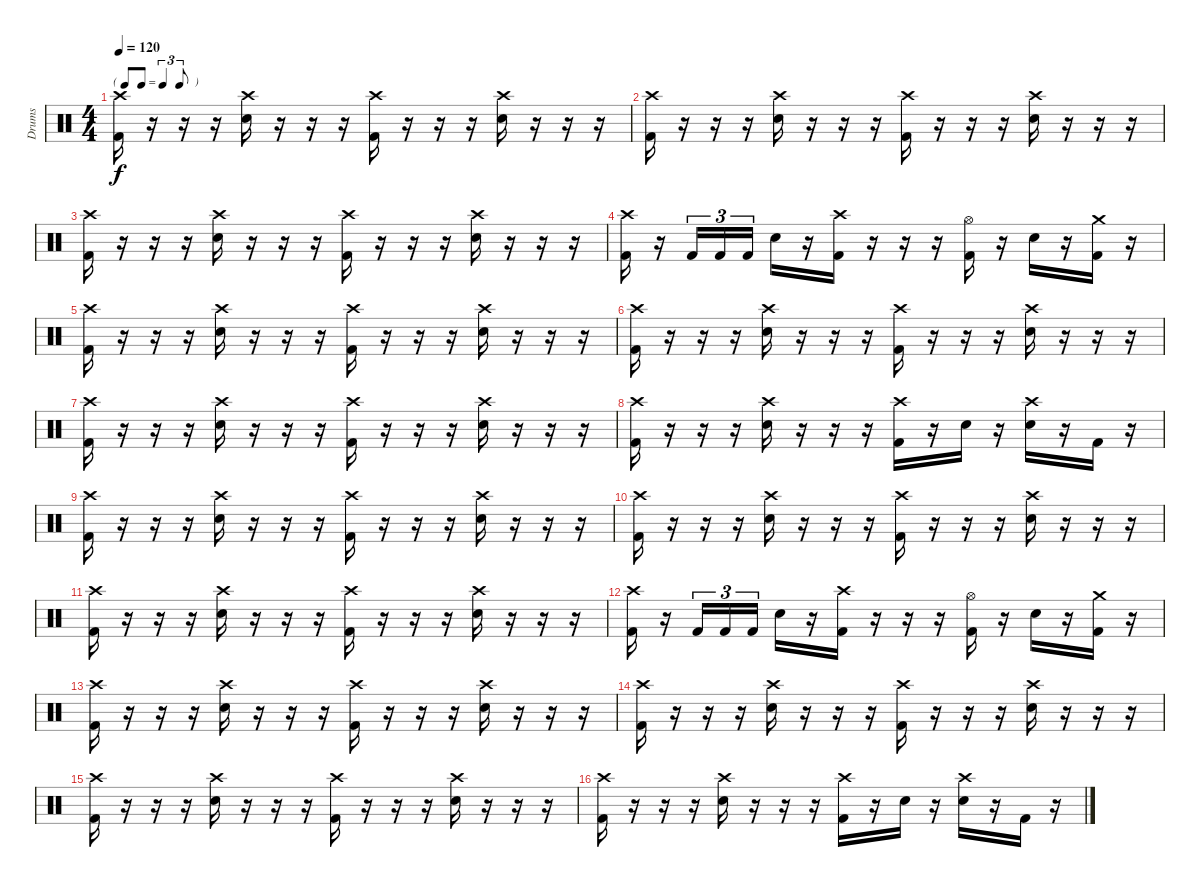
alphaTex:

\track ("Drums" "Drums") {instrument percussion}
\staff {score}
\articulation defaults
\ts (4 4)
\tf triplet8th
\tempo 120
\clef neutral
\ks c
("Crash high (hit)" "Kick (hit) 2").16{dy f} r.16 r.16 r.16 ("Crash high (hit)" "Electric Snare (hit)").16 r.16 r.16 r.16 ("Crash high (hit)" "Kick (hit) 2").16 r.16 r.16 r.16 ("Crash high (hit)" "Electric Snare (hit)").16 r.16 r.16 r.16 |
("Crash high (hit)" "Kick (hit) 2").16 r.16 r.16 r.16 ("Crash high (hit)" "Electric Snare (hit)").16 r.16 r.16 r.16 ("Crash high (hit)" "Kick (hit) 2").16 r.16 r.16 r.16 ("Crash high (hit)" "Electric Snare (hit)").16 r.16 r.16 r.16 |
("Crash high (hit)" "Kick (hit) 2").16 r.16 r.16 r.16 ("Crash high (hit)" "Electric Snare (hit)").16 r.16 r.16 r.16 ("Crash high (hit)" "Kick (hit) 2").16 r.16 r.16 r.16 ("Crash high (hit)" "Electric Snare (hit)").16 r.16 r.16 r.16 |
("Crash high (hit)" "Kick (hit) 2").16 r.16 "Kick (hit) 2".16{tu (3 2)} "Kick (hit) 2".16{tu (3 2)} "Kick (hit) 2".16{tu (3 2)} "Electric Snare (hit)".16 r.16 ("Crash high (hit)" "Kick (hit) 2").16 r.16 r.16 r.16 ("Hi-Hat (open)" "Kick (hit) 2").16 r.16 "Electric Snare (hit)".16 r.16 ("Crash medium (hit)" "Kick (hit) 2").16 r.16 |
("Crash high (hit)" "Kick (hit) 2").16 r.16 r.16 r.16 ("Crash high (hit)" "Electric Snare (hit)").16 r.16 r.16 r.16 ("Crash high (hit)" "Kick (hit) 2").16 r.16 r.16 r.16 ("Crash high (hit)" "Electric Snare (hit)").16 r.16 r.16 r.16 |
("Crash high (hit)" "Kick (hit) 2").16 r.16 r.16 r.16 ("Crash high (hit)" "Electric Snare (hit)").16 r.16 r.16 r.16 ("Crash high (hit)" "Kick (hit) 2").16 r.16 r.16 r.16 ("Crash high (hit)" "Electric Snare (hit)").16 r.16 r.16 r.16 |
("Crash high (hit)" "Kick (hit) 2").16 r.16 r.16 r.16 ("Crash high (hit)" "Electric Snare (hit)").16 r.16 r.16 r.16 ("Crash high (hit)" "Kick (hit) 2").16 r.16 r.16 r.16 ("Crash high (hit)" "Electric Snare (hit)").16 r.16 r.16 r.16 |
("Crash high (hit)" "Kick (hit) 2").16 r.16 r.16 r.16 ("Crash high (hit)" "Electric Snare (hit)").16 r.16 r.16 r.16 ("Crash high (hit)" "Kick (hit) 2").16 r.16 "Electric Snare (hit)".16 r.16 ("Crash high (hit)" "Electric Snare (hit)").16 r.16 "Kick (hit) 2".16 r.16 |
("Crash high (hit)" "Kick (hit) 2").16 r.16 r.16 r.16 ("Crash high (hit)" "Electric Snare (hit)").16 r.16 r.16 r.16 ("Crash high (hit)" "Kick (hit) 2").16 r.16 r.16 r.16 ("Crash high (hit)" "Electric Snare (hit)").16 r.16 r.16 r.16 |
("Crash high (hit)" "Kick (hit) 2").16 r.16 r.16 r.16 ("Crash high (hit)" "Electric Snare (hit)").16 r.16 r.16 r.16 ("Crash high (hit)" "Kick (hit) 2").16 r.16 r.16 r.16 ("Crash high (hit)" "Electric Snare (hit)").16 r.16 r.16 r.16 |
("Crash high (hit)" "Kick (hit) 2").16 r.16 r.16 r.16 ("Crash high (hit)" "Electric Snare (hit)").16 r.16 r.16 r.16 ("Crash high (hit)" "Kick (hit) 2").16 r.16 r.16 r.16 ("Crash high (hit)" "Electric Snare (hit)").16 r.16 r.16 r.16 |
("Crash high (hit)" "Kick (hit) 2").16 r.16 "Kick (hit) 2".16{tu (3 2)} "Kick (hit) 2".16{tu (3 2)} "Kick (hit) 2".16{tu (3 2)} "Electric Snare (hit)".16 r.16 ("Crash high (hit)" "Kick (hit) 2").16 r.16 r.16 r.16 ("Hi-Hat (open)" "Kick (hit) 2").16 r.16 "Electric Snare (hit)".16 r.16 ("Crash medium (hit)" "Kick (hit) 2").16 r.16 |
("Crash high (hit)" "Kick (hit) 2").16 r.16 r.16 r.16 ("Crash high (hit)" "Electric Snare (hit)").16 r.16 r.16 r.16 ("Crash high (hit)" "Kick (hit) 2").16 r.16 r.16 r.16 ("Crash high (hit)" "Electric Snare (hit)").16 r.16 r.16 r.16 |
("Crash high (hit)" "Kick (hit) 2").16 r.16 r.16 r.16 ("Crash high (hit)" "Electric Snare (hit)").16 r.16 r.16 r.16 ("Crash high (hit)" "Kick (hit) 2").16 r.16 r.16 r.16 ("Crash high (hit)" "Electric Snare (hit)").16 r.16 r.16 r.16 |
("Crash high (hit)" "Kick (hit) 2").16 r.16 r.16 r.16 ("Crash high (hit)" "Electric Snare (hit)").16 r.16 r.16 r.16 ("Crash high (hit)" "Kick (hit) 2").16 r.16 r.16 r.16 ("Crash high (hit)" "Electric Snare (hit)").16 r.16 r.16 r.16 |
("Crash high (hit)" "Kick (hit) 2").16 r.16 r.16 r.16 ("Crash high (hit)" "Electric Snare (hit)").16 r.16 r.16 r.16 ("Crash high (hit)" "Kick (hit) 2").16 r.16 "Electric Snare (hit)".16 r.16 ("Crash high (hit)" "Electric Snare (hit)").16 r.16 "Kick (hit) 2".16 r.16
